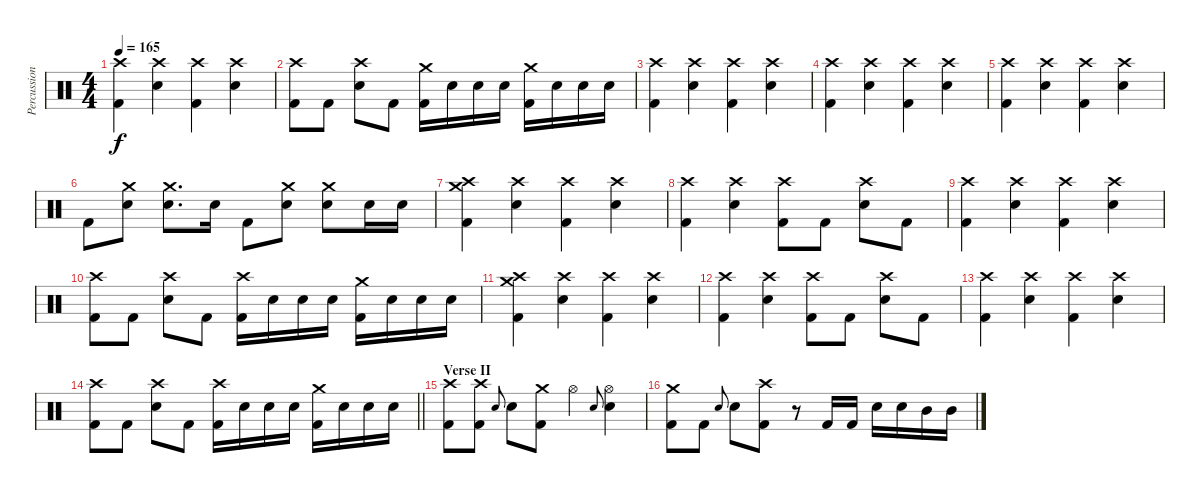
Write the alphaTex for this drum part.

\track ("Percussion" "Percussion") {instrument percussion}
\staff {score}
\articulation defaults
\ts (4 4)
\tempo 165
\clef neutral
\ks c
("Crash high (hit)" "Kick (hit) 2").4{dy f} ("Crash high (hit)" "Snare (hit) 2").4 ("Crash high (hit)" "Kick (hit) 2").4 ("Crash high (hit)" "Snare (hit) 2").4 |
("Crash high (hit)" "Kick (hit) 2").8 "Kick (hit) 2".8 ("Crash high (hit)" "Snare (hit) 2").8 "Kick (hit) 2".8 ("Crash medium (hit)" "Kick (hit) 2").16 "Snare (hit) 2".16 "Snare (hit) 2".16 "Snare (hit) 2".16 ("Crash medium (hit)" "Kick (hit) 2").16 "Snare (hit) 2".16 "Snare (hit) 2".16 "Snare (hit) 2".16 |
("Crash high (hit)" "Kick (hit) 2").4 ("Crash high (hit)" "Snare (hit) 2").4 ("Crash high (hit)" "Kick (hit) 2").4 ("Crash high (hit)" "Snare (hit) 2").4 |
("Crash high (hit)" "Kick (hit) 2").4 ("Crash high (hit)" "Snare (hit) 2").4 ("Crash high (hit)" "Kick (hit) 2").4 ("Crash high (hit)" "Snare (hit) 2").4 |
("Crash high (hit)" "Kick (hit) 2").4 ("Crash high (hit)" "Snare (hit) 2").4 ("Crash high (hit)" "Kick (hit) 2").4 ("Crash high (hit)" "Snare (hit) 2").4 |
"Kick (hit) 2".8 ("Crash medium (hit)" "Snare (hit) 2").8 ("Crash medium (hit)" "Snare (hit) 2").8{d} "Snare (hit) 2".16 "Kick (hit) 2".8 ("Crash medium (hit)" "Snare (hit) 2").8 ("Crash medium (hit)" "Snare (hit) 2").8 "Snare (hit) 2".16 "Snare (hit) 2".16 |
("Crash high (hit)" "Crash medium (hit)" "Kick (hit) 2").4 ("Crash high (hit)" "Snare (hit) 2").4 ("Crash high (hit)" "Kick (hit) 2").4 ("Crash high (hit)" "Snare (hit) 2").4 |
("Crash high (hit)" "Kick (hit) 2").4 ("Crash high (hit)" "Snare (hit) 2").4 ("Crash high (hit)" "Kick (hit) 2").8 "Kick (hit) 2".8 ("Crash high (hit)" "Snare (hit) 2").8 "Kick (hit) 2".8 |
("Crash high (hit)" "Kick (hit) 2").4 ("Crash high (hit)" "Snare (hit) 2").4 ("Crash high (hit)" "Kick (hit) 2").4 ("Crash high (hit)" "Snare (hit) 2").4 |
("Crash high (hit)" "Kick (hit) 2").8 "Kick (hit) 2".8 ("Crash high (hit)" "Snare (hit) 2").8 "Kick (hit) 2".8 ("Crash high (hit)" "Kick (hit) 2").16 "Snare (hit) 2".16 "Snare (hit) 2".16 "Snare (hit) 2".16 ("Crash medium (hit)" "Kick (hit) 2").16 "Snare (hit) 2".16 "Snare (hit) 2".16 "Snare (hit) 2".16 |
("Crash high (hit)" "Crash medium (hit)" "Kick (hit) 2").4 ("Crash high (hit)" "Snare (hit) 2").4 ("Crash high (hit)" "Kick (hit) 2").4 ("Crash high (hit)" "Snare (hit) 2").4 |
("Crash high (hit)" "Kick (hit) 2").4 ("Crash high (hit)" "Snare (hit) 2").4 ("Crash high (hit)" "Kick (hit) 2").8 "Kick (hit) 2".8 ("Crash high (hit)" "Snare (hit) 2").8 "Kick (hit) 2".8 |
("Crash high (hit)" "Kick (hit) 2").4 ("Crash high (hit)" "Snare (hit) 2").4 ("Crash high (hit)" "Kick (hit) 2").4 ("Crash high (hit)" "Snare (hit) 2").4 |
\barLineRight lightlight
("Crash high (hit)" "Kick (hit) 2").8 "Kick (hit) 2".8 ("Crash high (hit)" "Snare (hit) 2").8 "Kick (hit) 2".8 ("Crash high (hit)" "Kick (hit) 2").16 "Snare (hit) 2".16 "Snare (hit) 2".16 "Snare (hit) 2".16 ("Crash medium (hit)" "Kick (hit) 2").16 "Snare (hit) 2".16 "Snare (hit) 2".16 "Snare (hit) 2".16 |
\section ("" "Verse II")
("Crash high (hit)" "Kick (hit) 2").8 ("Crash high (hit)" "Kick (hit) 2").8 "Snare (hit) 2".8{gr onbeat} "Snare (hit) 2".8 ("Crash medium (hit)" "Kick (hit) 2").8 "Hi-Hat (open)".4 "Snare (hit) 2".8{gr onbeat} ("Hi-Hat (open)" "Snare (hit) 2").4 |
("Crash medium (hit)" "Kick (hit) 2").8 "Kick (hit) 2".8 "Snare (hit) 2".8{gr onbeat} "Snare (hit) 2".8 ("Crash high (hit)" "Kick (hit) 2").8 r.8 "Kick (hit) 2".16 "Kick (hit) 2".16 "Snare (hit) 2".16 "Snare (hit) 2".16 "Mid Tom (hit)".16 "Mid Tom (hit)".16
